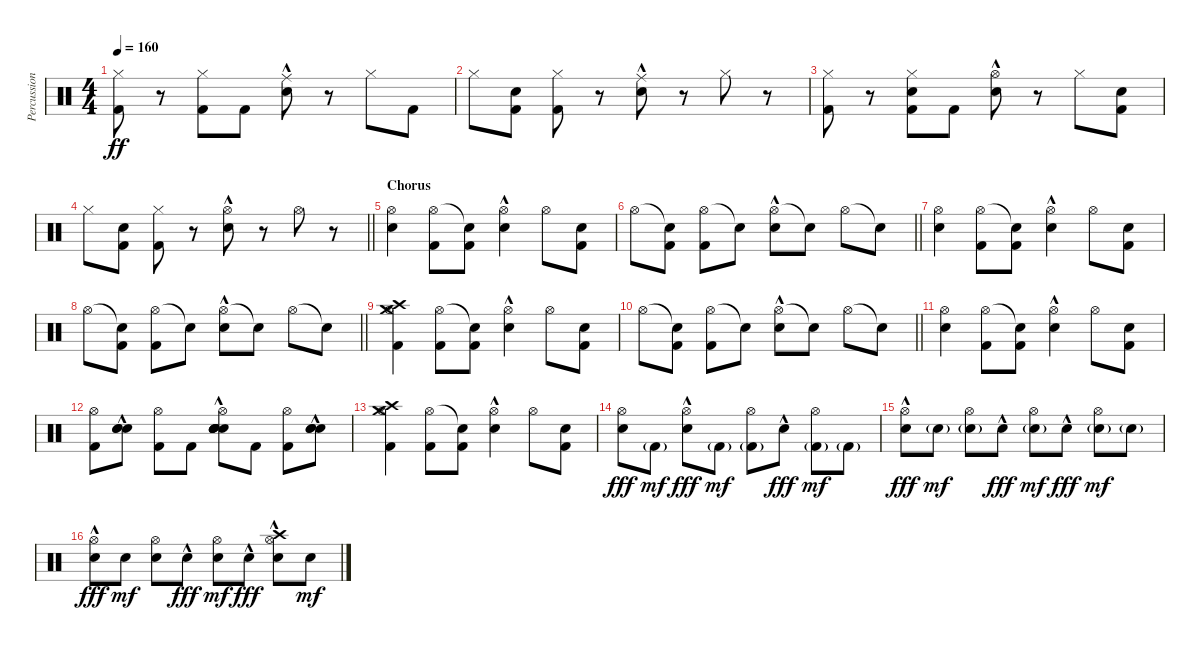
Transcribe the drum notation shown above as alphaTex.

\track ("Percussion" "Percussion") {instrument percussion}
\staff {score}
\articulation defaults
\ts (4 4)
\tempo 160
\clef neutral
\ks c
("Hi-Hat (closed)" "Kick (hit) 2").8{dy ff} r.8 ("Hi-Hat (closed)" "Kick (hit) 2").8 "Kick (hit) 2".8 ("Ride (middle)" "Electric Snare (hit)"{hac}).8 r.8 "Hi-Hat (closed)".8 "Kick (hit) 2".8 |
"Hi-Hat (closed)".8 ("Kick (hit) 2" "Electric Snare (hit)").8 ("Hi-Hat (closed)" "Kick (hit) 2").8 r.8 ("Ride (middle)" "Electric Snare (hit)"{hac}).8 r.8 "Hi-Hat (closed)".8 r.8 |
("Hi-Hat (closed)" "Kick (hit) 2").8 r.8 ("Hi-Hat (closed)" "Kick (hit) 2" "Electric Snare (hit)").8 "Kick (hit) 2".8 ("Hi-Hat (open)"{hac} "Electric Snare (hit)"{hac}).8 r.8 "Hi-Hat (closed)".8 ("Kick (hit) 2" "Electric Snare (hit)").8 |
\barLineRight lightlight "Hi-Hat (closed)".8
("Kick (hit) 2" "Electric Snare (hit)").8 ("Hi-Hat (closed)" "Kick (hit) 2").8 r.8 ("Hi-Hat (open)"{hac} "Electric Snare (hit)"{hac}).8 r.8 "Hi-Hat (open)".8 r.8 |
\section ("" "Chorus")
("Hi-Hat (open)" "Electric Snare (hit)").4 ("Hi-Hat (open)" "Kick (hit) 2").8 ("Snare (hit)"{t} "Kick (hit) 2").8 ("Hi-Hat (open)"{hac} "Electric Snare (hit)"{hac}).4 "Hi-Hat (open)".8 ("Electric Snare (hit)" "Kick (hit) 2").8 |
\barLineRight lightlight "Hi-Hat (open)".8
("Snare (hit)"{t} "Kick (hit) 2").8 ("Hi-Hat (open)" "Kick (hit) 2").8 "Snare (hit)"{t}.8 ("Hi-Hat (open)"{hac} "Electric Snare (hit)"{hac}).8 "Snare (hit)"{t}.8 "Hi-Hat (open)".8 "Snare (hit)"{t}.8 |
("Hi-Hat (open)" "Electric Snare (hit)").4 ("Hi-Hat (open)" "Kick (hit) 2").8 ("Snare (hit)"{t} "Kick (hit) 2").8 ("Hi-Hat (open)"{hac} "Electric Snare (hit)"{hac}).4 "Hi-Hat (open)".8 ("Electric Snare (hit)" "Kick (hit) 2").8 |
\barLineRight lightlight "Hi-Hat (open)".8
("Snare (hit)"{t} "Kick (hit) 2").8 ("Hi-Hat (open)" "Kick (hit) 2").8 "Snare (hit)"{t}.8 ("Hi-Hat (open)"{hac} "Electric Snare (hit)"{hac}).8 "Snare (hit)"{t}.8 "Hi-Hat (open)".8 "Snare (hit)"{t}.8 |
("Crash medium (hit)" "Hi-Hat (open)" "Kick (hit) 2" "Crash high (hit)").4 ("Hi-Hat (open)" "Kick (hit) 2").8 ("Snare (hit)"{t} "Kick (hit) 2").8 ("Hi-Hat (open)"{hac} "Electric Snare (hit)"{hac}).4 "Hi-Hat (open)".8 ("Electric Snare (hit)" "Kick (hit) 2").8 |
\barLineRight lightlight "Hi-Hat (open)".8
("Snare (hit)"{t} "Kick (hit) 2").8 ("Hi-Hat (open)" "Kick (hit) 2").8 "Snare (hit)"{t}.8 ("Hi-Hat (open)"{hac} "Electric Snare (hit)"{hac}).8 "Snare (hit)"{t}.8 "Hi-Hat (open)".8 "Snare (hit)"{t}.8 |
("Hi-Hat (open)" "Electric Snare (hit)").4 ("Hi-Hat (open)" "Kick (hit) 2").8 ("Snare (hit)"{t} "Kick (hit) 2").8 ("Hi-Hat (open)"{hac} "Electric Snare (hit)"{hac}).4 "Hi-Hat (open)".8 ("Electric Snare (hit)" "Kick (hit) 2").8 |
("Hi-Hat (open)" "Kick (hit) 2").8 ("Electric Snare (hit)"{hac} "Electric Snare (hit)"{hac} "Electric Snare (hit)"{hac}).8 ("Hi-Hat (open)" "Kick (hit) 2").8 "Kick (hit) 2".8 ("Electric Snare (hit)"{hac} "Hi-Hat (open)" "Electric Snare (hit)"{hac} "Electric Snare (hit)"{hac} "Electric Snare (hit)"{hac} "Electric Snare (hit)"{hac}).8 "Kick (hit) 2".8 ("Hi-Hat (open)" "Kick (hit) 2").8 ("Electric Snare (hit)" "Electric Snare (hit)" "Electric Snare (hit)"{hac}).8 |
("Hi-Hat (open)" "Kick (hit) 2" "Crash high (hit)" "Crash medium (hit)").4 ("Hi-Hat (open)" "Kick (hit) 2").8 ("Snare (hit)"{t} "Kick (hit) 2").8 ("Hi-Hat (open)"{hac} "Electric Snare (hit)"{hac}).4 "Hi-Hat (open)".8 ("Electric Snare (hit)" "Kick (hit) 2").8 |
("Hi-Hat (open)" "Electric Snare (hit)").8{dy fff} "Kick (hit) 2"{g}.8{dy mf} ("Hi-Hat (open)" "Electric Snare (hit)"{hac}).8{dy fff} "Kick (hit) 2"{g}.8{dy mf} ("Hi-Hat (open)" "Kick (hit) 2"{g}).8 "Electric Snare (hit)"{hac}.8{dy fff} ("Hi-Hat (open)" "Kick (hit) 2"{g}).8{dy mf} "Kick (hit) 2"{g}.8 |
("Hi-Hat (open)" "Electric Snare (hit)"{hac}).8{dy fff} "Snare (hit) 2"{g}.8{dy mf} ("Hi-Hat (open)" "Snare (hit) 2"{g}).8 "Electric Snare (hit)"{hac}.8{dy fff} ("Hi-Hat (open)" "Snare (hit) 2"{g}).8{dy mf} "Electric Snare (hit)"{hac}.8{dy fff} ("Hi-Hat (open)" "Snare (hit) 2"{g}).8{dy mf} "Snare (hit) 2"{g}.8 |
("Hi-Hat (open)" "Electric Snare (hit)"{hac}).8{dy fff} "Snare (hit) 2".8{dy mf} ("Hi-Hat (open)" "Snare (hit) 2").8 "Electric Snare (hit)"{hac}.8{dy fff} ("Hi-Hat (open)" "Snare (hit) 2").8{dy mf} "Electric Snare (hit)"{hac}.8{dy fff} ("Crash high (hit)" "Hi-Hat (open)" "Electric Snare (hit)"{hac}).8 "Snare (hit) 2".8{dy mf}
